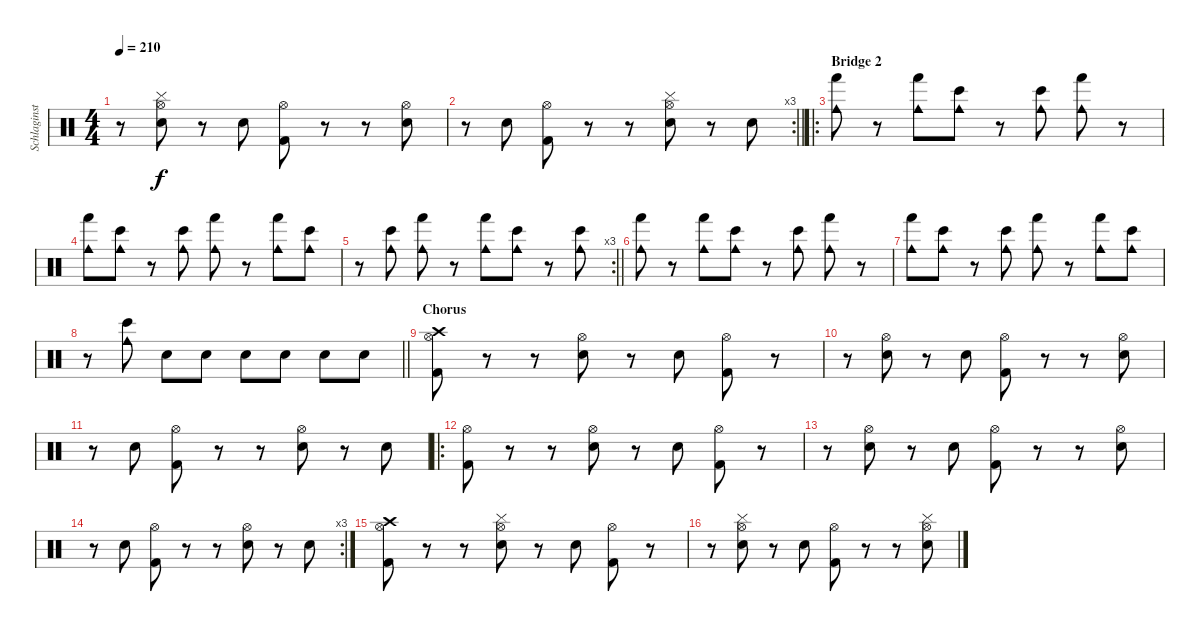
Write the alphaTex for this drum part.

\track ("Schlaginstrumente - Auswahl" "Schlaginst") {instrument percussion}
\staff {score}
\articulation defaults
\ts (4 4)
\tempo 210
\clef neutral
\ks c
r.8{dy f} ("Cymbal (hit)" "Hi-Hat (open)" "Electric Snare (hit)").8 r.8 "Electric Snare (hit)".8 ("Hi-Hat (open)" "Kick (hit) 2").8 r.8 r.8 ("Hi-Hat (open)" "Electric Snare (hit)").8 |
\rc 3
\barLineRight lightlight
r.8 "Electric Snare (hit)".8 ("Hi-Hat (open)" "Kick (hit) 2").8 r.8 r.8 ("Cymbal (hit)" "Hi-Hat (open)" "Electric Snare (hit)").8 r.8 "Electric Snare (hit)".8 |
\ro
\section ("" "Bridge 2")
("Cowbell medium (hit)" "Hand (hit)").8 r.8 ("Cowbell medium (hit)" "Hand (hit)").8 ("Cowbell medium (hit)" "Bongo High (hit)").8 r.8 ("Cowbell medium (hit)" "Bongo High (hit)").8 ("Cowbell medium (hit)" "Hand (hit)").8 r.8 |
("Cowbell medium (hit)" "Hand (hit)").8 ("Cowbell medium (hit)" "Bongo High (hit)").8 r.8 ("Cowbell medium (hit)" "Bongo High (hit)").8 ("Cowbell medium (hit)" "Hand (hit)").8 r.8 ("Cowbell medium (hit)" "Hand (hit)").8 ("Cowbell medium (hit)" "Bongo High (hit)").8 |
\rc 3
\barLineRight lightlight
r.8 ("Cowbell medium (hit)" "Bongo High (hit)").8 ("Cowbell medium (hit)" "Hand (hit)").8 r.8 ("Cowbell medium (hit)" "Hand (hit)").8 ("Cowbell medium (hit)" "Bongo High (hit)").8 r.8 ("Cowbell medium (hit)" "Bongo High (hit)").8 |
("Cowbell medium (hit)" "Hand (hit)").8 r.8 ("Cowbell medium (hit)" "Hand (hit)").8 ("Cowbell medium (hit)" "Bongo High (hit)").8 r.8 ("Cowbell medium (hit)" "Bongo High (hit)").8 ("Cowbell medium (hit)" "Hand (hit)").8 r.8 |
("Cowbell medium (hit)" "Hand (hit)").8 ("Cowbell medium (hit)" "Bongo High (hit)").8 r.8 ("Cowbell medium (hit)" "Bongo High (hit)").8 ("Cowbell medium (hit)" "Hand (hit)").8 r.8 ("Cowbell medium (hit)" "Hand (hit)").8 ("Cowbell medium (hit)" "Bongo High (hit)").8 |
\barLineRight lightlight
r.8 ("Cowbell medium (hit)" "Bongo High (hit)").8 "Electric Snare (hit)".8 "Electric Snare (hit)".8 "Electric Snare (hit)".8 "Electric Snare (hit)".8 "Electric Snare (hit)".8 "Electric Snare (hit)".8 |
\section ("" "Chorus")
("Crash high (hit)" "Hi-Hat (open)" "Kick (hit) 2").8 r.8 r.8 ("Hi-Hat (open)" "Electric Snare (hit)").8 r.8 "Electric Snare (hit)".8 ("Hi-Hat (open)" "Kick (hit) 2").8 r.8 |
r.8 ("Hi-Hat (open)" "Electric Snare (hit)").8 r.8 "Electric Snare (hit)".8 ("Hi-Hat (open)" "Kick (hit) 2").8 r.8 r.8 ("Hi-Hat (open)" "Electric Snare (hit)").8 |
r.8 "Electric Snare (hit)".8 ("Hi-Hat (open)" "Kick (hit) 2").8 r.8 r.8 ("Hi-Hat (open)" "Electric Snare (hit)").8 r.8 "Electric Snare (hit)".8 |
\ro
("Hi-Hat (open)" "Kick (hit) 2").8 r.8 r.8 ("Hi-Hat (open)" "Electric Snare (hit)").8 r.8 "Electric Snare (hit)".8 ("Hi-Hat (open)" "Kick (hit) 2").8 r.8 |
r.8 ("Hi-Hat (open)" "Electric Snare (hit)").8 r.8 "Electric Snare (hit)".8 ("Hi-Hat (open)" "Kick (hit) 2").8 r.8 r.8 ("Hi-Hat (open)" "Electric Snare (hit)").8 |
\rc 3
r.8 "Electric Snare (hit)".8 ("Hi-Hat (open)" "Kick (hit) 2").8 r.8 r.8 ("Hi-Hat (open)" "Electric Snare (hit)").8 r.8 "Electric Snare (hit)".8 |
("Crash high (hit)" "Hi-Hat (open)" "Kick (hit) 2").8 r.8 r.8 ("Cymbal (hit)" "Hi-Hat (open)" "Electric Snare (hit)").8 r.8 "Electric Snare (hit)".8 ("Hi-Hat (open)" "Kick (hit) 2").8 r.8 |
r.8 ("Cymbal (hit)" "Hi-Hat (open)" "Electric Snare (hit)").8 r.8 "Electric Snare (hit)".8 ("Hi-Hat (open)" "Kick (hit) 2").8 r.8 r.8 ("Cymbal (hit)" "Hi-Hat (open)" "Electric Snare (hit)").8
